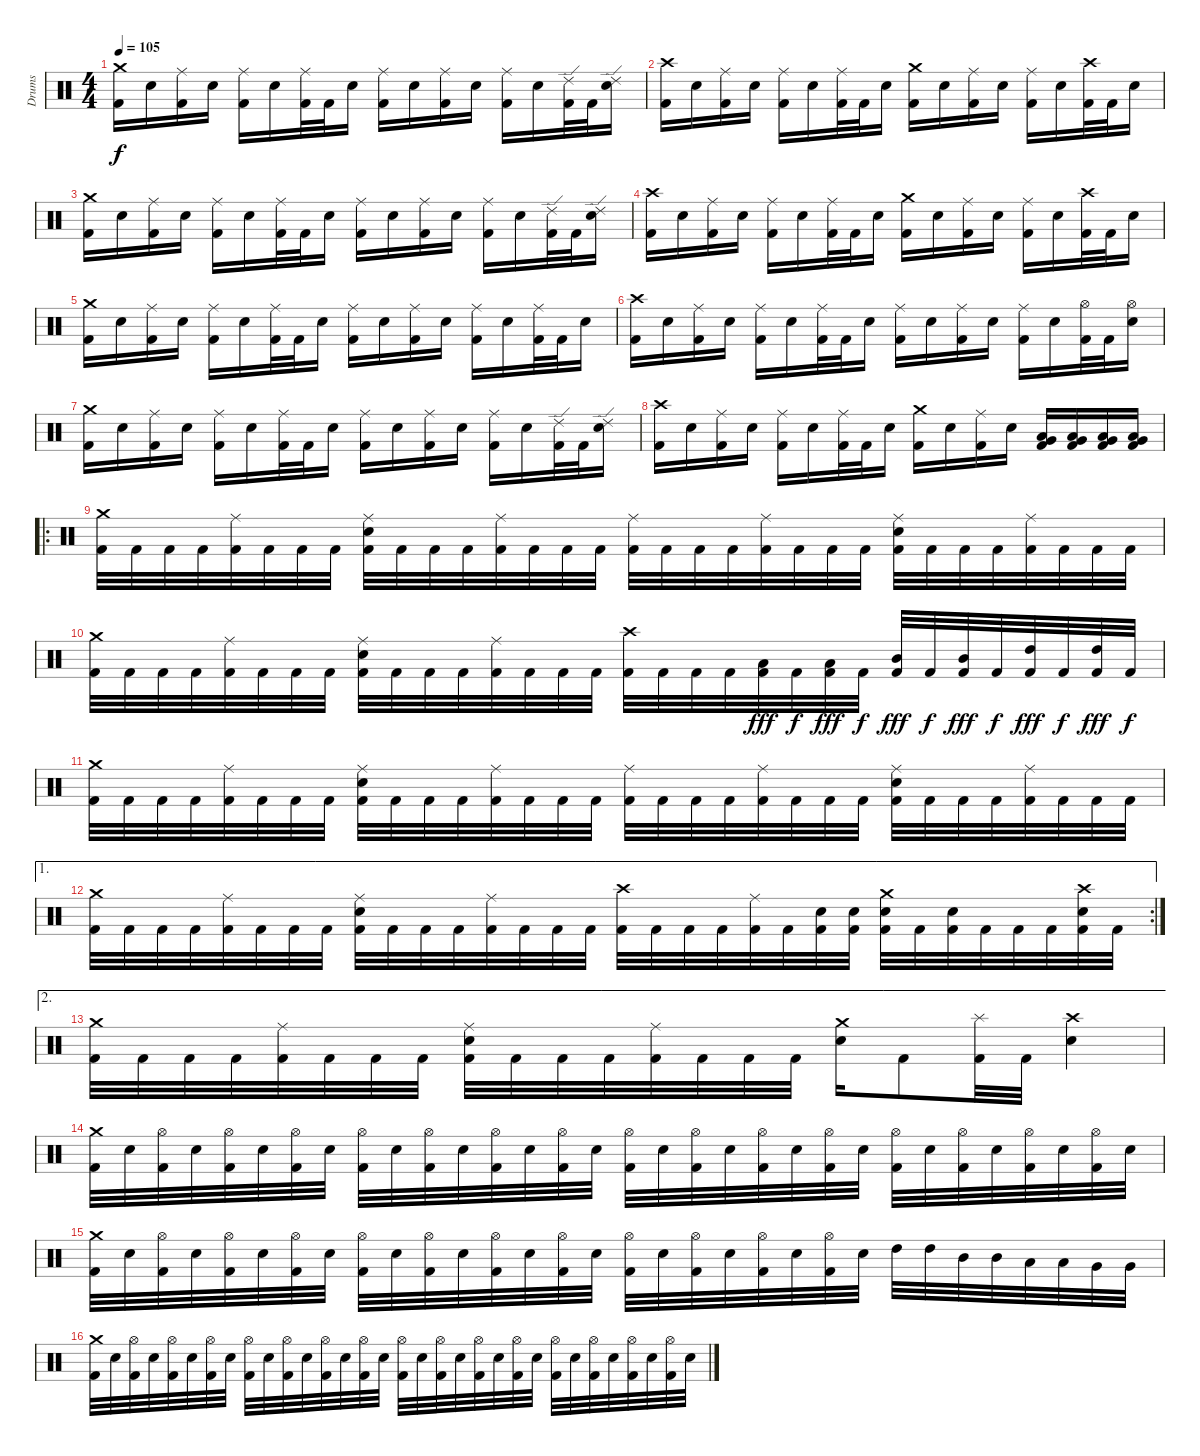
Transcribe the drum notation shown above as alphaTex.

\track ("Drums" "Drums") {instrument percussion}
\staff {score}
\articulation defaults
\ts (4 4)
\tempo 105
\clef neutral
\ks c
("Kick (hit) 2" "Crash medium (hit)").16{dy f} "Electric Snare (hit)".16 ("Kick (hit) 2" "Ride (middle)").16 "Electric Snare (hit)".16 ("Kick (hit) 2" "Ride (middle)").16 "Electric Snare (hit)".16 ("Kick (hit) 2" "Ride (middle)").32 "Kick (hit) 2".32 "Electric Snare (hit)".16 ("Kick (hit) 2" "Ride (middle)").16 "Electric Snare (hit)".16 ("Kick (hit) 2" "Ride (middle)").16 "Electric Snare (hit)".16 ("Kick (hit) 2" "Ride (middle)").16 "Electric Snare (hit)".16 ("Kick (hit) 2" "Ride (edge) 2").32 "Kick (hit) 2".32 ("Electric Snare (hit)" "Ride (edge) 2").16 |
("Kick (hit) 2" "Crash high (hit)").16 "Electric Snare (hit)".16 ("Kick (hit) 2" "Ride (middle)").16 "Electric Snare (hit)".16 ("Kick (hit) 2" "Ride (middle)").16 "Electric Snare (hit)".16 ("Kick (hit) 2" "Ride (middle)").32 "Kick (hit) 2".32 "Electric Snare (hit)".16 ("Kick (hit) 2" "Crash medium (hit)").16 "Electric Snare (hit)".16 ("Kick (hit) 2" "Ride (middle)").16 "Electric Snare (hit)".16 ("Kick (hit) 2" "Ride (middle)").16 "Electric Snare (hit)".16 ("Kick (hit) 2" "Crash high (hit)").32 "Kick (hit) 2".32 "Electric Snare (hit)".16 |
("Kick (hit) 2" "Crash medium (hit)").16 "Electric Snare (hit)".16 ("Kick (hit) 2" "Ride (middle)").16 "Electric Snare (hit)".16 ("Kick (hit) 2" "Ride (middle)").16 "Electric Snare (hit)".16 ("Kick (hit) 2" "Ride (middle)").32 "Kick (hit) 2".32 "Electric Snare (hit)".16 ("Kick (hit) 2" "Ride (middle)").16 "Electric Snare (hit)".16 ("Kick (hit) 2" "Ride (middle)").16 "Electric Snare (hit)".16 ("Kick (hit) 2" "Ride (middle)").16 "Electric Snare (hit)".16 ("Kick (hit) 2" "Ride (edge) 2").32 "Kick (hit) 2".32 ("Electric Snare (hit)" "Ride (edge) 2").16 |
("Kick (hit) 2" "Crash high (hit)").16 "Electric Snare (hit)".16 ("Kick (hit) 2" "Ride (middle)").16 "Electric Snare (hit)".16 ("Kick (hit) 2" "Ride (middle)").16 "Electric Snare (hit)".16 ("Kick (hit) 2" "Ride (middle)").32 "Kick (hit) 2".32 "Electric Snare (hit)".16 ("Kick (hit) 2" "Crash medium (hit)").16 "Electric Snare (hit)".16 ("Kick (hit) 2" "Ride (middle)").16 "Electric Snare (hit)".16 ("Kick (hit) 2" "Ride (middle)").16 "Electric Snare (hit)".16 ("Kick (hit) 2" "Crash high (hit)").32 "Kick (hit) 2".32 "Electric Snare (hit)".16 |
("Kick (hit) 2" "Crash medium (hit)").16 "Electric Snare (hit)".16 ("Kick (hit) 2" "Ride (middle)").16 "Electric Snare (hit)".16 ("Kick (hit) 2" "Ride (middle)").16 "Electric Snare (hit)".16 ("Kick (hit) 2" "Ride (middle)").32 "Kick (hit) 2".32 "Electric Snare (hit)".16 ("Kick (hit) 2" "Ride (middle)").16 "Electric Snare (hit)".16 ("Kick (hit) 2" "Ride (middle)").16 "Electric Snare (hit)".16 ("Kick (hit) 2" "Ride (middle)").16 "Electric Snare (hit)".16 ("Kick (hit) 2" "Ride (middle)").32 "Kick (hit) 2".32 "Electric Snare (hit)".16 |
("Kick (hit) 2" "Crash high (hit)").16 "Electric Snare (hit)".16 ("Kick (hit) 2" "Ride (middle)").16 "Electric Snare (hit)".16 ("Kick (hit) 2" "Ride (middle)").16 "Electric Snare (hit)".16 ("Kick (hit) 2" "Ride (middle)").32 "Kick (hit) 2".32 "Electric Snare (hit)".16 ("Kick (hit) 2" "Ride (middle)").16 "Electric Snare (hit)".16 ("Kick (hit) 2" "Ride (middle)").16 "Electric Snare (hit)".16 ("Kick (hit) 2" "Ride (middle)").16 "Electric Snare (hit)".16 ("Kick (hit) 2" "Hi-Hat (open)").32 "Kick (hit) 2".32 ("Electric Snare (hit)" "Hi-Hat (open)").16 |
("Kick (hit) 2" "Crash medium (hit)").16 "Electric Snare (hit)".16 ("Kick (hit) 2" "Ride (middle)").16 "Electric Snare (hit)".16 ("Kick (hit) 2" "Ride (middle)").16 "Electric Snare (hit)".16 ("Kick (hit) 2" "Ride (middle)").32 "Kick (hit) 2".32 "Electric Snare (hit)".16 ("Kick (hit) 2" "Ride (middle)").16 "Electric Snare (hit)".16 ("Kick (hit) 2" "Ride (middle)").16 "Electric Snare (hit)".16 ("Kick (hit) 2" "Ride (middle)").16 "Electric Snare (hit)".16 ("Kick (hit) 2" "Ride (edge) 2").32 "Kick (hit) 2".32 ("Electric Snare (hit)" "Ride (edge) 2").16 |
("Kick (hit) 2" "Crash high (hit)").16 "Electric Snare (hit)".16 ("Kick (hit) 2" "Ride (middle)").16 "Electric Snare (hit)".16 ("Kick (hit) 2" "Ride (middle)").16 "Electric Snare (hit)".16 ("Kick (hit) 2" "Ride (middle)").32 "Kick (hit) 2".32 "Electric Snare (hit)".16 ("Kick (hit) 2" "Crash medium (hit)").16 "Electric Snare (hit)".16 ("Kick (hit) 2" "Ride (middle)").16 "Electric Snare (hit)".16 ("Kick (hit) 2" "Very Low Tom (hit)" "Low Tom (hit)").16 ("Kick (hit) 2" "Very Low Tom (hit)" "Low Tom (hit)").16 ("Kick (hit) 2" "Very Low Tom (hit)" "Low Tom (hit)").16 ("Kick (hit) 2" "Very Low Tom (hit)" "Low Tom (hit)").16 |
\ro
("Kick (hit) 2" "Crash medium (hit)").32 "Kick (hit) 2".32 "Kick (hit) 2".32 "Kick (hit) 2".32 ("Kick (hit) 2" "Ride (middle)").32 "Kick (hit) 2".32 "Kick (hit) 2".32 "Kick (hit) 2".32 ("Kick (hit) 2" "Electric Snare (hit)" "Ride (middle)").32 "Kick (hit) 2".32 "Kick (hit) 2".32 "Kick (hit) 2".32 ("Kick (hit) 2" "Ride (middle)").32 "Kick (hit) 2".32 "Kick (hit) 2".32 "Kick (hit) 2".32 ("Kick (hit) 2" "Ride (middle)").32 "Kick (hit) 2".32 "Kick (hit) 2".32 "Kick (hit) 2".32 ("Kick (hit) 2" "Ride (middle)").32 "Kick (hit) 2".32 "Kick (hit) 2".32 "Kick (hit) 2".32 ("Kick (hit) 2" "Electric Snare (hit)" "Ride (middle)").32 "Kick (hit) 2".32 "Kick (hit) 2".32 "Kick (hit) 2".32 ("Kick (hit) 2" "Ride (middle)").32 "Kick (hit) 2".32 "Kick (hit) 2".32 "Kick (hit) 2".32 |
("Kick (hit) 2" "Crash medium (hit)").32 "Kick (hit) 2".32 "Kick (hit) 2".32 "Kick (hit) 2".32 ("Kick (hit) 2" "Ride (middle)").32 "Kick (hit) 2".32 "Kick (hit) 2".32 "Kick (hit) 2".32 ("Kick (hit) 2" "Electric Snare (hit)" "Ride (middle)").32 "Kick (hit) 2".32 "Kick (hit) 2".32 "Kick (hit) 2".32 ("Kick (hit) 2" "Ride (middle)").32 "Kick (hit) 2".32 "Kick (hit) 2".32 "Kick (hit) 2".32 ("Kick (hit) 2" "Crash high (hit)").32 "Kick (hit) 2".32 "Kick (hit) 2".32 "Kick (hit) 2".32 ("Kick (hit) 2" "Low Tom (hit)").32{dy fff} "Kick (hit) 2".32{dy f} ("Kick (hit) 2" "Low Tom (hit)").32{dy fff} "Kick (hit) 2".32{dy f} ("Kick (hit) 2" "Mid Tom (hit)").32{dy fff} "Kick (hit) 2".32{dy f} ("Kick (hit) 2" "Mid Tom (hit)").32{dy fff} "Kick (hit) 2".32{dy f} ("Kick (hit) 2" "High Tom (hit)").32{dy fff} "Kick (hit) 2".32{dy f} ("Kick (hit) 2" "High Tom (hit)").32{dy fff} "Kick (hit) 2".32{dy f} |
("Kick (hit) 2" "Crash medium (hit)").32 "Kick (hit) 2".32 "Kick (hit) 2".32 "Kick (hit) 2".32 ("Kick (hit) 2" "Ride (middle)").32 "Kick (hit) 2".32 "Kick (hit) 2".32 "Kick (hit) 2".32 ("Kick (hit) 2" "Electric Snare (hit)" "Ride (middle)").32 "Kick (hit) 2".32 "Kick (hit) 2".32 "Kick (hit) 2".32 ("Kick (hit) 2" "Ride (middle)").32 "Kick (hit) 2".32 "Kick (hit) 2".32 "Kick (hit) 2".32 ("Kick (hit) 2" "Ride (middle)").32 "Kick (hit) 2".32 "Kick (hit) 2".32 "Kick (hit) 2".32 ("Kick (hit) 2" "Ride (middle)").32 "Kick (hit) 2".32 "Kick (hit) 2".32 "Kick (hit) 2".32 ("Kick (hit) 2" "Electric Snare (hit)" "Ride (middle)").32 "Kick (hit) 2".32 "Kick (hit) 2".32 "Kick (hit) 2".32 ("Kick (hit) 2" "Ride (middle)").32 "Kick (hit) 2".32 "Kick (hit) 2".32 "Kick (hit) 2".32 |
\ae 1
\rc 2
("Kick (hit) 2" "Crash medium (hit)").32 "Kick (hit) 2".32 "Kick (hit) 2".32 "Kick (hit) 2".32 ("Kick (hit) 2" "Ride (middle)").32 "Kick (hit) 2".32 "Kick (hit) 2".32 "Kick (hit) 2".32 ("Kick (hit) 2" "Electric Snare (hit)" "Ride (middle)").32 "Kick (hit) 2".32 "Kick (hit) 2".32 "Kick (hit) 2".32 ("Kick (hit) 2" "Ride (middle)").32 "Kick (hit) 2".32 "Kick (hit) 2".32 "Kick (hit) 2".32 ("Kick (hit) 2" "Crash high (hit)").32 "Kick (hit) 2".32 "Kick (hit) 2".32 "Kick (hit) 2".32 ("Kick (hit) 2" "Ride (middle)").32 "Kick (hit) 2".32 ("Kick (hit) 2" "Electric Snare (hit)").32 ("Kick (hit) 2" "Electric Snare (hit)").32 ("Kick (hit) 2" "Electric Snare (hit)" "Crash medium (hit)").32 "Kick (hit) 2".32 ("Kick (hit) 2" "Electric Snare (hit)").32 "Kick (hit) 2".32 "Kick (hit) 2".32 "Kick (hit) 2".32 ("Kick (hit) 2" "Electric Snare (hit)" "Crash high (hit)").32 "Kick (hit) 2".32 |
\ae 2
("Kick (hit) 2" "Crash medium (hit)").32 "Kick (hit) 2".32 "Kick (hit) 2".32 "Kick (hit) 2".32 ("Kick (hit) 2" "Ride (middle)").32 "Kick (hit) 2".32 "Kick (hit) 2".32 "Kick (hit) 2".32 ("Kick (hit) 2" "Electric Snare (hit)" "Ride (middle)").32 "Kick (hit) 2".32 "Kick (hit) 2".32 "Kick (hit) 2".32 ("Kick (hit) 2" "Ride (middle)").32 "Kick (hit) 2".32 "Kick (hit) 2".32 "Kick (hit) 2".32 ("Electric Snare (hit)" "Crash medium (hit)").16 "Kick (hit) 2".8 ("Kick (hit) 2" "Splash (hit)").32 "Kick (hit) 2".32 ("Electric Snare (hit)" "Crash high (hit)").4 |
("Kick (hit) 2" "Crash medium (hit)").32{volume 16} "Electric Snare (hit)".32 ("Kick (hit) 2" "Hi-Hat (open)").32 "Electric Snare (hit)".32 ("Kick (hit) 2" "Hi-Hat (open)").32 "Electric Snare (hit)".32 ("Kick (hit) 2" "Hi-Hat (open)").32 "Electric Snare (hit)".32 ("Kick (hit) 2" "Hi-Hat (open)").32 "Electric Snare (hit)".32 ("Kick (hit) 2" "Hi-Hat (open)").32 "Electric Snare (hit)".32 ("Kick (hit) 2" "Hi-Hat (open)").32 "Electric Snare (hit)".32 ("Kick (hit) 2" "Hi-Hat (open)").32 "Electric Snare (hit)".32 ("Kick (hit) 2" "Hi-Hat (open)").32 "Electric Snare (hit)".32 ("Kick (hit) 2" "Hi-Hat (open)").32 "Electric Snare (hit)".32 ("Kick (hit) 2" "Hi-Hat (open)").32 "Electric Snare (hit)".32 ("Kick (hit) 2" "Hi-Hat (open)").32 "Electric Snare (hit)".32 ("Kick (hit) 2" "Hi-Hat (open)").32 "Electric Snare (hit)".32 ("Kick (hit) 2" "Hi-Hat (open)").32 "Electric Snare (hit)".32 ("Kick (hit) 2" "Hi-Hat (open)").32 "Electric Snare (hit)".32 ("Kick (hit) 2" "Hi-Hat (open)").32 "Electric Snare (hit)".32 |
("Kick (hit) 2" "Crash medium (hit)").32 "Electric Snare (hit)".32 ("Kick (hit) 2" "Hi-Hat (open)").32 "Electric Snare (hit)".32 ("Kick (hit) 2" "Hi-Hat (open)").32 "Electric Snare (hit)".32 ("Kick (hit) 2" "Hi-Hat (open)").32 "Electric Snare (hit)".32 ("Kick (hit) 2" "Hi-Hat (open)").32 "Electric Snare (hit)".32 ("Kick (hit) 2" "Hi-Hat (open)").32 "Electric Snare (hit)".32 ("Kick (hit) 2" "Hi-Hat (open)").32 "Electric Snare (hit)".32 ("Kick (hit) 2" "Hi-Hat (open)").32 "Electric Snare (hit)".32 ("Kick (hit) 2" "Hi-Hat (open)").32 "Electric Snare (hit)".32 ("Kick (hit) 2" "Hi-Hat (open)").32 "Electric Snare (hit)".32 ("Kick (hit) 2" "Hi-Hat (open)").32 "Electric Snare (hit)".32 ("Kick (hit) 2" "Hi-Hat (open)").32 "Electric Snare (hit)".32 "High Tom (hit)".32 "High Tom (hit)".32 "Mid Tom (hit)".32 "Mid Tom (hit)".32 "Low Tom (hit)".32 "Low Tom (hit)".32 "Very Low Tom (hit)".32 "Very Low Tom (hit)".32 |
("Kick (hit) 2" "Crash medium (hit)").32 "Electric Snare (hit)".32 ("Kick (hit) 2" "Hi-Hat (open)").32 "Electric Snare (hit)".32 ("Kick (hit) 2" "Hi-Hat (open)").32 "Electric Snare (hit)".32 ("Kick (hit) 2" "Hi-Hat (open)").32 "Electric Snare (hit)".32 ("Kick (hit) 2" "Hi-Hat (open)").32 "Electric Snare (hit)".32 ("Kick (hit) 2" "Hi-Hat (open)").32 "Electric Snare (hit)".32 ("Kick (hit) 2" "Hi-Hat (open)").32 "Electric Snare (hit)".32 ("Kick (hit) 2" "Hi-Hat (open)").32 "Electric Snare (hit)".32 ("Kick (hit) 2" "Hi-Hat (open)").32 "Electric Snare (hit)".32 ("Kick (hit) 2" "Hi-Hat (open)").32 "Electric Snare (hit)".32 ("Kick (hit) 2" "Hi-Hat (open)").32 "Electric Snare (hit)".32 ("Kick (hit) 2" "Hi-Hat (open)").32 "Electric Snare (hit)".32 ("Kick (hit) 2" "Hi-Hat (open)").32 "Electric Snare (hit)".32 ("Kick (hit) 2" "Hi-Hat (open)").32 "Electric Snare (hit)".32 ("Kick (hit) 2" "Hi-Hat (open)").32 "Electric Snare (hit)".32 ("Kick (hit) 2" "Hi-Hat (open)").32 "Electric Snare (hit)".32
